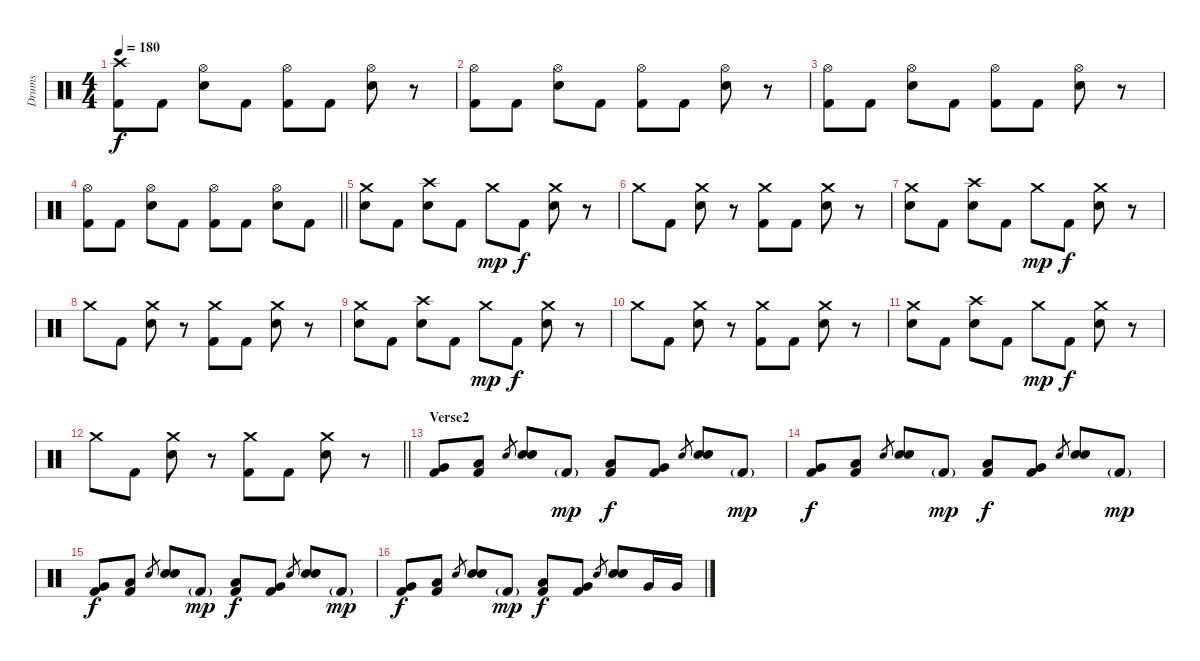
\track ("Drums" "Drums") {instrument percussion}
\staff {score}
\articulation defaults
\ts (4 4)
\tempo 180
\clef neutral
\ks c
("Kick (hit) 2" "Crash high (hit)").8{dy f} "Kick (hit) 2".8 ("Electric Snare (hit)" "Hi-Hat (open)").8 "Kick (hit) 2".8 ("Kick (hit) 2" "Hi-Hat (open)").8 "Kick (hit) 2".8 ("Electric Snare (hit)" "Hi-Hat (open)").8 r.8 |
("Kick (hit) 2" "Hi-Hat (open)").8 "Kick (hit) 2".8 ("Electric Snare (hit)" "Hi-Hat (open)").8 "Kick (hit) 2".8 ("Kick (hit) 2" "Hi-Hat (open)").8 "Kick (hit) 2".8 ("Electric Snare (hit)" "Hi-Hat (open)").8 r.8 |
("Kick (hit) 2" "Hi-Hat (open)").8 "Kick (hit) 2".8 ("Electric Snare (hit)" "Hi-Hat (open)").8 "Kick (hit) 2".8 ("Kick (hit) 2" "Hi-Hat (open)").8 "Kick (hit) 2".8 ("Electric Snare (hit)" "Hi-Hat (open)").8 r.8 |
\barLineRight lightlight
("Kick (hit) 2" "Hi-Hat (open)").8 "Kick (hit) 2".8 ("Electric Snare (hit)" "Hi-Hat (open)").8 "Kick (hit) 2".8 ("Kick (hit) 2" "Hi-Hat (open)").8 "Kick (hit) 2".8 ("Electric Snare (hit)" "Hi-Hat (open)").8 "Kick (hit) 2".8 |
\section ("" "")
("Electric Snare (hit)" "Crash medium (hit)").8 "Kick (hit) 2".8 ("Electric Snare (hit)" "Crash high (hit)").8 "Kick (hit) 2".8 "Crash medium (hit)".8{dy mp} "Kick (hit) 2".8{dy f} ("Electric Snare (hit)" "Crash medium (hit)").8 r.8 |
"Crash medium (hit)".8 "Kick (hit) 2".8 ("Electric Snare (hit)" "Crash medium (hit)").8 r.8 ("Kick (hit) 2" "Crash medium (hit)").8 "Kick (hit) 2".8 ("Electric Snare (hit)" "Crash medium (hit)").8 r.8 |
("Electric Snare (hit)" "Crash medium (hit)").8 "Kick (hit) 2".8 ("Electric Snare (hit)" "Crash high (hit)").8 "Kick (hit) 2".8 "Crash medium (hit)".8{dy mp} "Kick (hit) 2".8{dy f} ("Electric Snare (hit)" "Crash medium (hit)").8 r.8 |
"Crash medium (hit)".8 "Kick (hit) 2".8 ("Electric Snare (hit)" "Crash medium (hit)").8 r.8 ("Kick (hit) 2" "Crash medium (hit)").8 "Kick (hit) 2".8 ("Electric Snare (hit)" "Crash medium (hit)").8 r.8 |
("Electric Snare (hit)" "Crash medium (hit)").8 "Kick (hit) 2".8 ("Electric Snare (hit)" "Crash high (hit)").8 "Kick (hit) 2".8 "Crash medium (hit)".8{dy mp} "Kick (hit) 2".8{dy f} ("Electric Snare (hit)" "Crash medium (hit)").8 r.8 |
"Crash medium (hit)".8 "Kick (hit) 2".8 ("Electric Snare (hit)" "Crash medium (hit)").8 r.8 ("Kick (hit) 2" "Crash medium (hit)").8 "Kick (hit) 2".8 ("Electric Snare (hit)" "Crash medium (hit)").8 r.8 |
("Electric Snare (hit)" "Crash medium (hit)").8 "Kick (hit) 2".8 ("Electric Snare (hit)" "Crash high (hit)").8 "Kick (hit) 2".8 "Crash medium (hit)".8{dy mp} "Kick (hit) 2".8{dy f} ("Electric Snare (hit)" "Crash medium (hit)").8 r.8 |
\barLineRight lightlight "Crash medium (hit)".8 "Kick (hit) 2".8
("Electric Snare (hit)" "Crash medium (hit)").8 r.8 ("Kick (hit) 2" "Crash medium (hit)").8 "Kick (hit) 2".8 ("Electric Snare (hit)" "Crash medium (hit)").8 r.8 |
\section ("" "Verse2")
("Kick (hit) 2" "Very Low Tom (hit)").8 ("Kick (hit) 2" "Low Floor Tom (hit)").8 "Electric Snare (hit)".8{gr} ("Electric Snare (hit)" "Electric Snare (hit)").8 "Kick (hit) 2"{g}.8{dy mp} ("Kick (hit) 2" "Low Floor Tom (hit)").8{dy f} ("Kick (hit) 2" "Very Low Tom (hit)").8 "Electric Snare (hit)".8{gr} ("Electric Snare (hit)" "Electric Snare (hit)").8 "Kick (hit) 2"{g}.8{dy mp} |
("Kick (hit) 2" "Very Low Tom (hit)").8{dy f} ("Kick (hit) 2" "Low Floor Tom (hit)").8 "Electric Snare (hit)".8{gr} ("Electric Snare (hit)" "Electric Snare (hit)").8 "Kick (hit) 2"{g}.8{dy mp} ("Kick (hit) 2" "Low Floor Tom (hit)").8{dy f} ("Kick (hit) 2" "Very Low Tom (hit)").8 "Electric Snare (hit)".8{gr} ("Electric Snare (hit)" "Electric Snare (hit)").8 "Kick (hit) 2"{g}.8{dy mp} |
("Kick (hit) 2" "Very Low Tom (hit)").8{dy f} ("Kick (hit) 2" "Low Floor Tom (hit)").8 "Electric Snare (hit)".8{gr} ("Electric Snare (hit)" "Electric Snare (hit)").8 "Kick (hit) 2"{g}.8{dy mp} ("Kick (hit) 2" "Low Floor Tom (hit)").8{dy f} ("Kick (hit) 2" "Very Low Tom (hit)").8 "Electric Snare (hit)".8{gr} ("Electric Snare (hit)" "Electric Snare (hit)").8 "Kick (hit) 2"{g}.8{dy mp} |
("Kick (hit) 2" "Very Low Tom (hit)").8{dy f} ("Kick (hit) 2" "Low Floor Tom (hit)").8 "Electric Snare (hit)".8{gr} ("Electric Snare (hit)" "Electric Snare (hit)").8 "Kick (hit) 2"{g}.8{dy mp} ("Kick (hit) 2" "Low Floor Tom (hit)").8{dy f} ("Kick (hit) 2" "Very Low Tom (hit)").8 "Electric Snare (hit)".8{gr} ("Electric Snare (hit)" "Electric Snare (hit)").8 "Very Low Tom (hit)".16 "Very Low Tom (hit)".16
